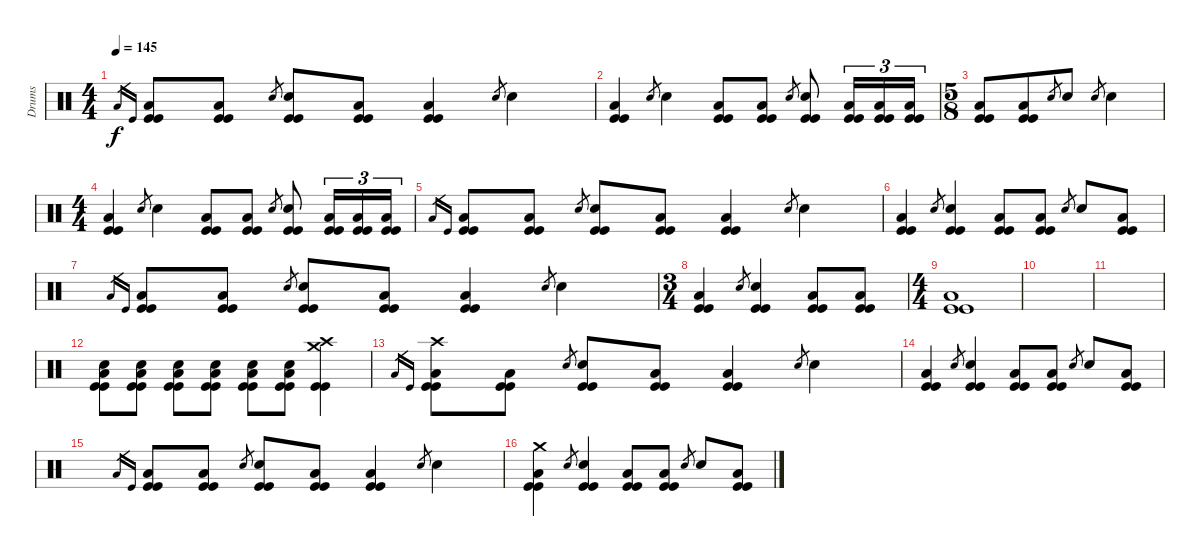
\track ("Drums" "Drums") {instrument percussion}
\staff {score}
\articulation defaults
\ts (4 4)
\tempo 145
\clef neutral
\ks c "Low Floor Tom (hit)".16{gr dy f} "Kick (hit)".16{gr}
("Low Floor Tom (hit)" "Kick (hit)" "Kick (hit)").8 ("Low Floor Tom (hit)" "Kick (hit)" "Kick (hit)").8 "Electric Snare (hit)".8{gr} ("Electric Snare (hit)" "Kick (hit)" "Kick (hit)").8 ("Low Floor Tom (hit)" "Kick (hit)" "Kick (hit)").8 ("Low Floor Tom (hit)" "Kick (hit)" "Kick (hit)").4 "Electric Snare (hit)".8{gr} "Electric Snare (hit)".4 |
("Low Floor Tom (hit)" "Kick (hit)" "Kick (hit)").4 "Electric Snare (hit)".8{gr} "Electric Snare (hit)".4 ("Low Floor Tom (hit)" "Kick (hit)" "Kick (hit)").8 ("Low Floor Tom (hit)" "Kick (hit)" "Kick (hit)").8 "Electric Snare (hit)".8{gr} ("Electric Snare (hit)" "Kick (hit)" "Kick (hit)").8 ("Low Floor Tom (hit)" "Kick (hit)" "Kick (hit)").16{tu (3 2)} ("Low Floor Tom (hit)" "Kick (hit)" "Kick (hit)").16{tu (3 2)} ("Low Floor Tom (hit)" "Kick (hit)" "Kick (hit)").16{tu (3 2)} |
\ts (5 8)
("Low Floor Tom (hit)" "Kick (hit)" "Kick (hit)").8 ("Low Floor Tom (hit)" "Kick (hit)" "Kick (hit)").8 "Electric Snare (hit)".8{gr} "Electric Snare (hit)".8 "Electric Snare (hit)".8{gr} "Electric Snare (hit)".4 |
\ts (4 4)
("Low Floor Tom (hit)" "Kick (hit)" "Kick (hit)").4 "Electric Snare (hit)".8{gr} "Electric Snare (hit)".4 ("Low Floor Tom (hit)" "Kick (hit)" "Kick (hit)").8 ("Low Floor Tom (hit)" "Kick (hit)" "Kick (hit)").8 "Electric Snare (hit)".8{gr} ("Electric Snare (hit)" "Kick (hit)" "Kick (hit)").8 ("Low Floor Tom (hit)" "Kick (hit)" "Kick (hit)").16{tu (3 2)} ("Low Floor Tom (hit)" "Kick (hit)" "Kick (hit)").16{tu (3 2)} ("Low Floor Tom (hit)" "Kick (hit)" "Kick (hit)").16{tu (3 2)} |
"Low Floor Tom (hit)".16{gr} "Kick (hit)".16{gr} ("Low Floor Tom (hit)" "Kick (hit)" "Kick (hit)").8 ("Low Floor Tom (hit)" "Kick (hit)" "Kick (hit)").8 "Electric Snare (hit)".8{gr} ("Electric Snare (hit)" "Kick (hit)" "Kick (hit)").8 ("Low Floor Tom (hit)" "Kick (hit)" "Kick (hit)").8 ("Low Floor Tom (hit)" "Kick (hit)" "Kick (hit)").4 "Electric Snare (hit)".8{gr} "Electric Snare (hit)".4 |
("Low Floor Tom (hit)" "Kick (hit)" "Kick (hit)").4 "Electric Snare (hit)".8{gr} ("Electric Snare (hit)" "Kick (hit)" "Kick (hit)").4 ("Low Floor Tom (hit)" "Kick (hit)" "Kick (hit)").8 ("Low Floor Tom (hit)" "Kick (hit)" "Kick (hit)").8 "Electric Snare (hit)".8{gr} "Electric Snare (hit)".8 ("Low Floor Tom (hit)" "Kick (hit)" "Kick (hit)").8 |
"Low Floor Tom (hit)".16{gr} "Kick (hit)".16{gr} ("Low Floor Tom (hit)" "Kick (hit)" "Kick (hit)").8 ("Low Floor Tom (hit)" "Kick (hit)" "Kick (hit)").8 "Electric Snare (hit)".8{gr} ("Electric Snare (hit)" "Kick (hit)" "Kick (hit)").8 ("Low Floor Tom (hit)" "Kick (hit)" "Kick (hit)").8 ("Low Floor Tom (hit)" "Kick (hit)" "Kick (hit)").4 "Electric Snare (hit)".8{gr} "Electric Snare (hit)".4 |
\ts (3 4)
("Low Floor Tom (hit)" "Kick (hit)" "Kick (hit)").4 "Electric Snare (hit)".8{gr} ("Electric Snare (hit)" "Kick (hit)" "Kick (hit)").4 ("Low Floor Tom (hit)" "Kick (hit)" "Kick (hit)").8 ("Low Floor Tom (hit)" "Kick (hit)" "Kick (hit)").8 |
\ts (4 4)
("Low Floor Tom (hit)" "Kick (hit)" "Kick (hit)").1 |
|
|
("Electric Snare (hit)" "Low Floor Tom (hit)" "Kick (hit)" "Kick (hit)").8{volume 16} ("Electric Snare (hit)" "Low Floor Tom (hit)" "Kick (hit)" "Kick (hit)").8 ("Electric Snare (hit)" "Low Floor Tom (hit)" "Kick (hit)" "Kick (hit)").8 ("Electric Snare (hit)" "Low Floor Tom (hit)" "Kick (hit)" "Kick (hit)").8 ("Electric Snare (hit)" "Low Floor Tom (hit)" "Kick (hit)" "Kick (hit)").8 ("Electric Snare (hit)" "Low Floor Tom (hit)" "Kick (hit)" "Kick (hit)").8 ("Crash medium (hit)" "Crash high (hit)" "Kick (hit)" "Kick (hit)").4 |
"Low Floor Tom (hit)".16{gr} "Kick (hit)".16{gr} ("Crash high (hit)" "Low Floor Tom (hit)" "Kick (hit)" "Kick (hit)").8 ("Low Floor Tom (hit)" "Kick (hit)" "Kick (hit)").8 "Electric Snare (hit)".8{gr} ("Electric Snare (hit)" "Kick (hit)" "Kick (hit)").8 ("Low Floor Tom (hit)" "Kick (hit)" "Kick (hit)").8 ("Low Floor Tom (hit)" "Kick (hit)" "Kick (hit)").4 "Electric Snare (hit)".8{gr} "Electric Snare (hit)".4 |
("Low Floor Tom (hit)" "Kick (hit)" "Kick (hit)").4 "Electric Snare (hit)".8{gr} ("Electric Snare (hit)" "Kick (hit)" "Kick (hit)").4 ("Low Floor Tom (hit)" "Kick (hit)" "Kick (hit)").8 ("Low Floor Tom (hit)" "Kick (hit)" "Kick (hit)").8 "Electric Snare (hit)".8{gr} "Electric Snare (hit)".8 ("Low Floor Tom (hit)" "Kick (hit)" "Kick (hit)").8 |
"Low Floor Tom (hit)".16{gr} "Kick (hit)".16{gr} ("Low Floor Tom (hit)" "Kick (hit)" "Kick (hit)").8 ("Low Floor Tom (hit)" "Kick (hit)" "Kick (hit)").8 "Electric Snare (hit)".8{gr} ("Electric Snare (hit)" "Kick (hit)" "Kick (hit)").8 ("Low Floor Tom (hit)" "Kick (hit)" "Kick (hit)").8 ("Low Floor Tom (hit)" "Kick (hit)" "Kick (hit)").4 "Electric Snare (hit)".8{gr} "Electric Snare (hit)".4 |
("Crash medium (hit)" "Low Floor Tom (hit)" "Kick (hit)" "Kick (hit)").4 "Electric Snare (hit)".8{gr} ("Electric Snare (hit)" "Kick (hit)" "Kick (hit)").4 ("Low Floor Tom (hit)" "Kick (hit)" "Kick (hit)").8 ("Low Floor Tom (hit)" "Kick (hit)" "Kick (hit)").8 "Electric Snare (hit)".8{gr} "Electric Snare (hit)".8 ("Low Floor Tom (hit)" "Kick (hit)" "Kick (hit)").8
